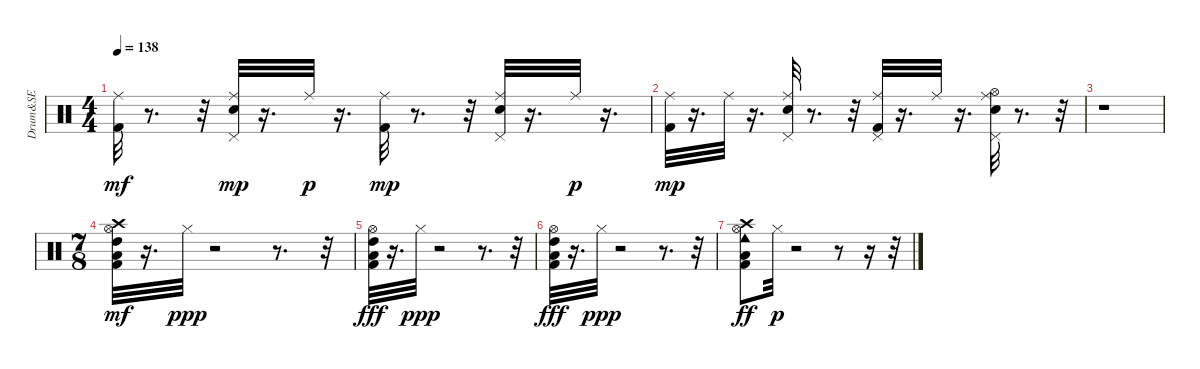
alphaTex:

\track ("Drum&SE" "Drum&SE") {instrument percussion}
\staff {score}
\articulation defaults
\ts (4 4)
\tempo 138
\clef neutral
\ks c
("Kick (hit) 2" "Ride (middle)").32{dy mf} r.8{d} r.32 ("Snare (hit) 2" "Pedal Hi-Hat (hit)" "Ride (middle)").32{dy mp} r.16{d} "Ride (middle)".32{dy p} r.16{d} ("Kick (hit) 2" "Ride (middle)").32{dy mp} r.8{d} r.32 ("Snare (hit) 2" "Pedal Hi-Hat (hit)" "Ride (middle)").32 r.16{d} "Ride (middle)".32{dy p} r.16{d} |
("Kick (hit) 2" "Ride (middle)").32{dy mp} r.16{d} "Ride (middle)".32 r.16{d} ("Snare (hit) 2" "Pedal Hi-Hat (hit)" "Ride (middle)").32 r.8{d} r.32 ("Kick (hit) 2" "Pedal Hi-Hat (hit)" "Ride (middle)").32 r.16{d} "Ride (middle)".32 r.16{d} ("Snare (hit) 2" "Pedal Hi-Hat (hit)" "Hi-Hat (open)" "Ride (middle)").32 r.8{d} r.32 |
r.1 |
\ts (7 8)
("Kick (hit) 2" "Low Tom (hit)" "Hi-Hat (open)" "High Tom (hit)" "Crash high (hit)").32{dy mf} r.16{d} "Hi-Hat (closed)".32{dy ppp} r.2 r.8{d} r.32 |
("Kick (hit) 2" "Low Tom (hit)" "Hi-Hat (open)" "High Tom (hit)").32{dy fff} r.16{d} "Hi-Hat (closed)".32{dy ppp} r.2 r.8{d} r.32 |
("Kick (hit) 2" "Low Tom (hit)" "Hi-Hat (open)" "High Tom (hit)").32{dy fff} r.16{d} "Hi-Hat (closed)".32{dy ppp} r.2 r.8{d} r.32 |
("Kick (hit) 2" "Hi-Hat (open)" "Crash high (hit)" "Low Tom (hit)" "Cowbell low (hit)").8{dy ff} "Hi-Hat (closed)".32{dy p} r.2 r.8 r.16 r.32
